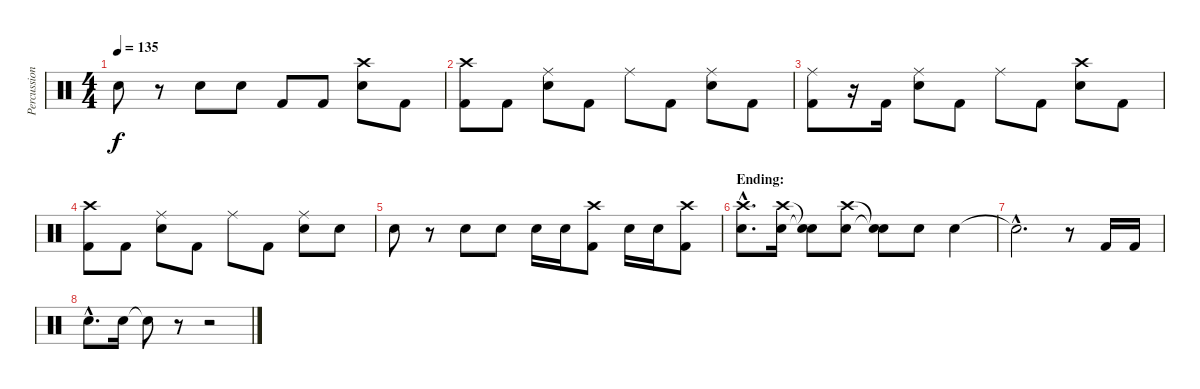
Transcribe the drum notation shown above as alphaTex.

\track ("Percussion" "Percussion") {instrument percussion}
\staff {score}
\articulation defaults
\ts (4 4)
\tempo 135
\clef neutral
\ks c "Electric Snare (hit)".8{dy f}
r.8 "Electric Snare (hit)".8 "Electric Snare (hit)".8 "Kick (hit) 2".8 "Kick (hit) 2".8 ("Crash high (hit)" "Electric Snare (hit)").8 "Kick (hit) 2".8 |
("Crash high (hit)" "Kick (hit) 2").8 "Kick (hit) 2".8 ("Ride (middle)" "Electric Snare (hit)").8 "Kick (hit) 2".8 "Ride (middle)".8 "Kick (hit) 2".8 ("Ride (middle)" "Electric Snare (hit)").8 "Kick (hit) 2".8 |
("Ride (middle)" "Kick (hit) 2").8 r.16 "Kick (hit) 2".16 ("Ride (middle)" "Electric Snare (hit)").8 "Kick (hit) 2".8 "Ride (middle)".8 "Kick (hit) 2".8 ("Crash high (hit)" "Electric Snare (hit)").8 "Kick (hit) 2".8 |
("Crash high (hit)" "Kick (hit) 2").8 "Kick (hit) 2".8 ("Ride (middle)" "Electric Snare (hit)").8 "Kick (hit) 2".8 "Ride (middle)".8 "Kick (hit) 2".8 ("Ride (middle)" "Electric Snare (hit)").8 "Electric Snare (hit)".8 |
"Electric Snare (hit)".8 r.8 "Electric Snare (hit)".8 "Electric Snare (hit)".8 "Electric Snare (hit)".16 "Electric Snare (hit)".16 ("Crash high (hit)" "Kick (hit) 2").8 "Electric Snare (hit)".16 "Electric Snare (hit)".16 ("Crash high (hit)" "Kick (hit) 2").8 |
\section ("" "Ending:")
("Crash high (hit)"{hac} "Electric Snare (hit)"{hac}).8{d} ("Crash high (hit)" "Electric Snare (hit)").16 ("Snare (hit)"{t} "Snare (hit)"{t}).8 ("Crash high (hit)" "Electric Snare (hit)").8 ("Snare (hit)"{t} "Snare (hit)"{t}).8 "Electric Snare (hit)".8 "Electric Snare (hit)".4 |
"Snare (hit)"{hac t}.2{d} r.8 "Kick (hit) 2".16 "Kick (hit) 2".16 |
"Electric Snare (hit)"{hac}.8{d} "Electric Snare (hit)".16 "Snare (hit)"{t}.8 r.8 r.2
